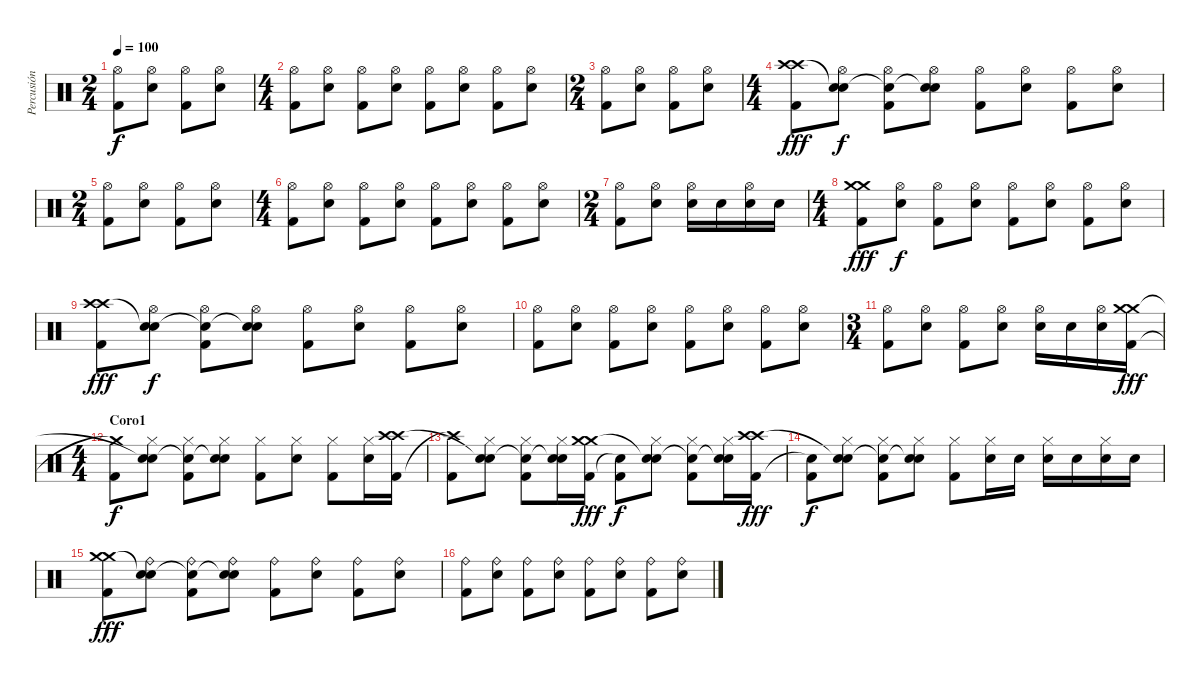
\track ("Percusión" "Percusión") {instrument percussion}
\staff {score}
\articulation defaults
\ts (2 4)
\tempo 100
\clef neutral
\ks c
("Hi-Hat (open)" "Kick (hit) 2").8{dy f} ("Hi-Hat (open)" "Snare (hit) 2").8 ("Hi-Hat (open)" "Kick (hit) 2").8 ("Hi-Hat (open)" "Snare (hit) 2").8 |
\ts (4 4)
("Hi-Hat (open)" "Kick (hit) 2").8 ("Hi-Hat (open)" "Snare (hit) 2").8 ("Hi-Hat (open)" "Kick (hit) 2").8 ("Hi-Hat (open)" "Snare (hit) 2").8 ("Hi-Hat (open)" "Kick (hit) 2").8 ("Hi-Hat (open)" "Snare (hit) 2").8 ("Hi-Hat (open)" "Kick (hit) 2").8 ("Hi-Hat (open)" "Snare (hit) 2").8 |
\ts (2 4)
("Hi-Hat (open)" "Kick (hit) 2").8 ("Hi-Hat (open)" "Snare (hit) 2").8 ("Hi-Hat (open)" "Kick (hit) 2").8 ("Hi-Hat (open)" "Snare (hit) 2").8 |
\ts (4 4)
("Crash high (hit)" "Kick (hit) 2" "Crash high (hit)").8{dy fff} ("Hi-Hat (open)" "Snare (hit) 2" "Snare (hit)"{t}).8{dy f} ("Hi-Hat (open)" "Kick (hit) 2" "Snare (hit)"{t}).8 ("Hi-Hat (open)" "Snare (hit) 2" "Snare (hit)"{t}).8 ("Hi-Hat (open)" "Kick (hit) 2").8 ("Hi-Hat (open)" "Snare (hit) 2").8 ("Hi-Hat (open)" "Kick (hit) 2").8 ("Hi-Hat (open)" "Snare (hit) 2").8 |
\ts (2 4)
("Hi-Hat (open)" "Kick (hit) 2").8 ("Hi-Hat (open)" "Snare (hit) 2").8 ("Hi-Hat (open)" "Kick (hit) 2").8 ("Hi-Hat (open)" "Snare (hit) 2").8 |
\ts (4 4)
("Hi-Hat (open)" "Kick (hit) 2").8 ("Hi-Hat (open)" "Snare (hit) 2").8 ("Hi-Hat (open)" "Kick (hit) 2").8 ("Hi-Hat (open)" "Snare (hit) 2").8 ("Hi-Hat (open)" "Kick (hit) 2").8 ("Hi-Hat (open)" "Snare (hit) 2").8 ("Hi-Hat (open)" "Kick (hit) 2").8 ("Hi-Hat (open)" "Snare (hit) 2").8 |
\ts (2 4)
("Hi-Hat (open)" "Kick (hit) 2").8 ("Hi-Hat (open)" "Snare (hit) 2").8 ("Hi-Hat (open)" "Snare (hit) 2").16 "Snare (hit) 2".16 ("Hi-Hat (open)" "Snare (hit) 2").16 "Snare (hit) 2".16 |
\ts (4 4)
("Crash medium (hit)" "Kick (hit) 2" "Crash medium (hit)").8{dy fff} ("Hi-Hat (open)" "Snare (hit) 2").8{dy f} ("Hi-Hat (open)" "Kick (hit) 2").8 ("Hi-Hat (open)" "Snare (hit) 2").8 ("Hi-Hat (open)" "Kick (hit) 2").8 ("Hi-Hat (open)" "Snare (hit) 2").8 ("Hi-Hat (open)" "Kick (hit) 2").8 ("Hi-Hat (open)" "Snare (hit) 2").8 |
("Crash high (hit)" "Kick (hit) 2" "Crash high (hit)").8{dy fff} ("Hi-Hat (open)" "Snare (hit) 2" "Snare (hit)"{t}).8{dy f} ("Hi-Hat (open)" "Kick (hit) 2" "Snare (hit)"{t}).8 ("Hi-Hat (open)" "Snare (hit) 2" "Snare (hit)"{t}).8 ("Hi-Hat (open)" "Kick (hit) 2").8 ("Hi-Hat (open)" "Snare (hit) 2").8 ("Hi-Hat (open)" "Kick (hit) 2").8 ("Hi-Hat (open)" "Snare (hit) 2").8 |
("Hi-Hat (open)" "Kick (hit) 2").8 ("Hi-Hat (open)" "Snare (hit) 2").8 ("Hi-Hat (open)" "Kick (hit) 2").8 ("Hi-Hat (open)" "Snare (hit) 2").8 ("Hi-Hat (open)" "Kick (hit) 2").8 ("Hi-Hat (open)" "Snare (hit) 2").8 ("Hi-Hat (open)" "Kick (hit) 2").8 ("Hi-Hat (open)" "Snare (hit) 2").8 |
\ts (3 4)
("Hi-Hat (open)" "Kick (hit) 2").8 ("Hi-Hat (open)" "Snare (hit) 2").8 ("Hi-Hat (open)" "Kick (hit) 2").8 ("Hi-Hat (open)" "Snare (hit) 2").8 ("Hi-Hat (open)" "Snare (hit) 2").16 "Snare (hit) 2".16 ("Hi-Hat (open)" "Snare (hit) 2").16 ("Crash medium (hit)" "Kick (hit) 2" "Crash medium (hit)").16{dy fff} |
\ts (4 4)
\section ("" "Coro1")
("Kick (hit) 2" "Crash medium (hit)"{t}).8{dy f} ("Hi-Hat (closed)" "Snare (hit) 2" "Snare (hit)"{t}).8 ("Hi-Hat (closed)" "Kick (hit) 2" "Snare (hit)"{t}).8 ("Hi-Hat (closed)" "Snare (hit) 2" "Snare (hit)"{t}).8 ("Hi-Hat (closed)" "Kick (hit) 2").8 ("Hi-Hat (closed)" "Snare (hit) 2").8 ("Hi-Hat (closed)" "Kick (hit) 2").8 ("Hi-Hat (closed)" "Snare (hit) 2").16 ("Crash high (hit)" "Kick (hit) 2" "Crash high (hit)").16 |
("Kick (hit) 2" "Crash high (hit)"{t}).8 ("Hi-Hat (closed)" "Snare (hit) 2" "Snare (hit)"{t}).8 ("Hi-Hat (closed)" "Kick (hit) 2" "Snare (hit)"{t}).8 ("Hi-Hat (closed)" "Snare (hit) 2" "Snare (hit)"{t}).16 ("Crash medium (hit)" "Kick (hit) 2" "Crash medium (hit)").16{dy fff} ("Kick (hit) 2" "Snare (hit)"{t}).8{dy f} ("Hi-Hat (closed)" "Snare (hit) 2" "Snare (hit)"{t}).8 ("Hi-Hat (closed)" "Kick (hit) 2" "Snare (hit)"{t}).8 ("Hi-Hat (closed)" "Snare (hit) 2" "Snare (hit)"{t}).16 ("Crash high (hit)" "Kick (hit) 2" "Crash high (hit)").16{dy fff} |
("Kick (hit) 2" "Snare (hit)"{t}).8{dy f} ("Hi-Hat (closed)" "Snare (hit) 2" "Snare (hit)"{t}).8 ("Hi-Hat (closed)" "Kick (hit) 2" "Snare (hit)"{t}).8 ("Hi-Hat (closed)" "Snare (hit) 2" "Snare (hit)"{t}).8 ("Hi-Hat (closed)" "Kick (hit) 2").8 ("Hi-Hat (closed)" "Snare (hit) 2").16 "Snare (hit) 2".16 ("Hi-Hat (closed)" "Snare (hit) 2").16 "Snare (hit) 2".16 ("Hi-Hat (closed)" "Snare (hit) 2").16 "Snare (hit) 2".16 |
("Crash medium (hit)" "Kick (hit) 2" "Crash medium (hit)").8{dy fff} ("Ride (bell)" "Snare (hit) 2" "Snare (hit)"{t}).8 ("Ride (bell)" "Kick (hit) 2" "Snare (hit)"{t}).8 ("Ride (bell)" "Snare (hit) 2" "Snare (hit)"{t}).8 ("Ride (bell)" "Kick (hit) 2").8 ("Ride (bell)" "Snare (hit) 2").8 ("Ride (bell)" "Kick (hit) 2").8 ("Ride (bell)" "Snare (hit) 2").8 |
("Ride (bell)" "Kick (hit) 2").8 ("Ride (bell)" "Snare (hit) 2").8 ("Ride (bell)" "Kick (hit) 2").8 ("Ride (bell)" "Snare (hit) 2").8 ("Ride (bell)" "Kick (hit) 2").8 ("Ride (bell)" "Snare (hit) 2").8 ("Ride (bell)" "Kick (hit) 2").8 ("Ride (bell)" "Snare (hit) 2").8
